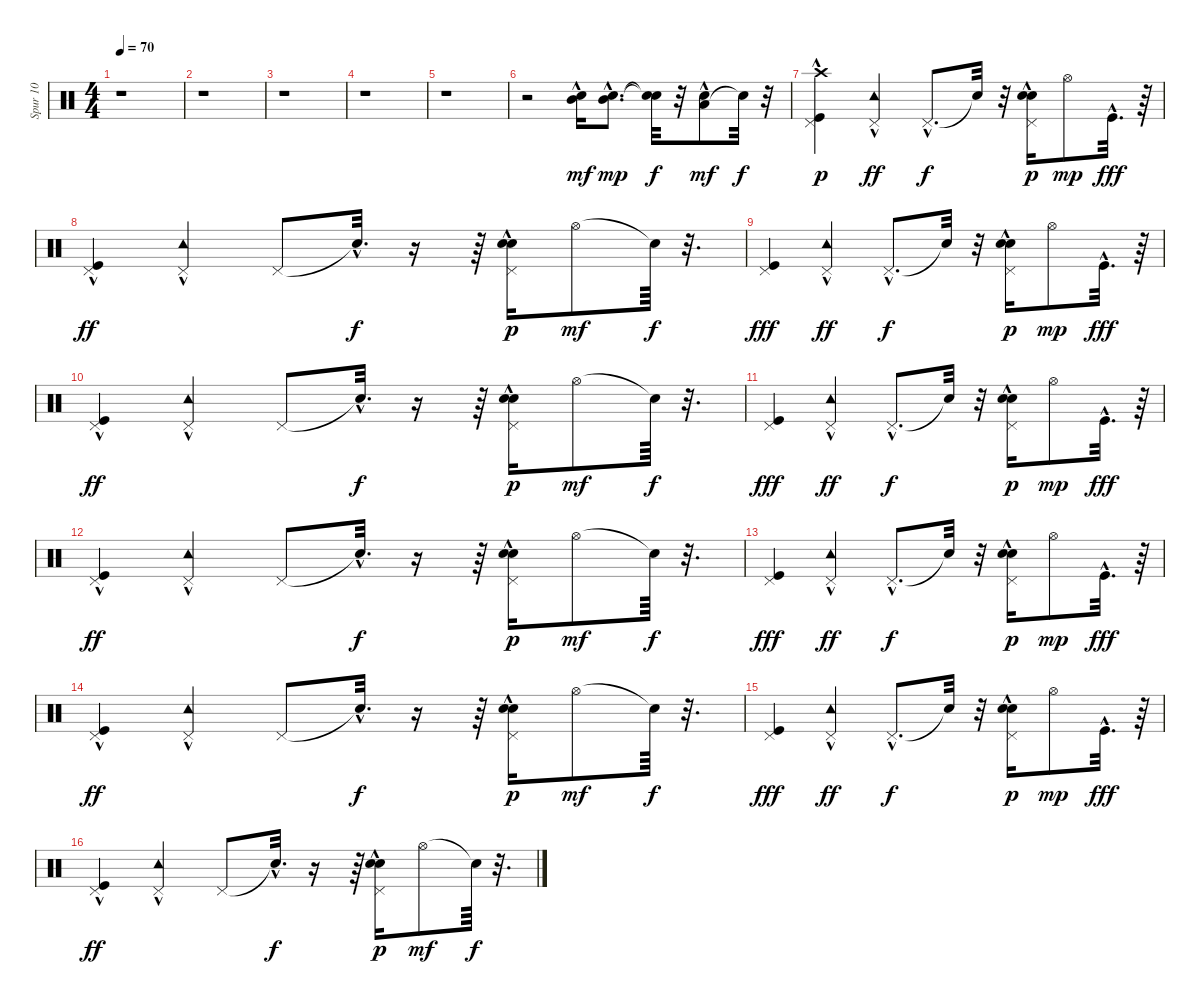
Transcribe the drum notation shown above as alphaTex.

\track ("Spur 10" "Spur 10") {instrument percussion}
\staff {score}
\articulation defaults
\ts (4 4)
\tempo 70
\clef neutral
\ks c
r.1{dy mf} |
r.1 |
r.1 |
r.1 |
r.1 |
r.2 ("Electric Snare (hit)" "Mid Tom (hit)"{hac}).16 ("Electric Snare (hit)"{hac} "Mid Tom (hit)"{hac}).8{d dy mp} ("Snare (hit)"{t} "Snare (hit)"{t}).32{dy f} r.32 ("Low Tom (hit)"{hac} "Electric Snare (hit)").8{dy mf} "Snare (hit)"{t}.32{dy f} r.32 |
("Kick (hit)" "Pedal Hi-Hat (hit)" "Crash high (hit)"{hac}).4{dy p} ("Pedal Hi-Hat (hit)"{hac} "Tambourine (hit)").4{dy ff} "Pedal Hi-Hat (hit)"{hac}.8{d dy f} "Snare (hit)"{t}.32 r.32 ("Pedal Hi-Hat (hit)"{hac} "Snare (hit) 2" "Electric Snare (hit)").16{dy p} "Hi-Hat (open)".8{dy mp} "Kick (hit)"{hac}.32{d dy fff} r.64 |
("Kick (hit)" "Pedal Hi-Hat (hit)"{hac}).4{dy ff} ("Tambourine (hit)" "Pedal Hi-Hat (hit)"{hac}).4 "Pedal Hi-Hat (hit)".8 "Snare (hit)"{hac t}.32{d dy f} r.16 r.64 ("Pedal Hi-Hat (hit)"{hac} "Electric Snare (hit)" "Snare (hit) 2"{hac}).16{dy p} "Hi-Hat (open)".8{dy mf} "Snare (hit)"{t}.64{dy f} r.32{d} |
("Kick (hit)" "Pedal Hi-Hat (hit)").4{dy fff} ("Pedal Hi-Hat (hit)"{hac} "Tambourine (hit)").4{dy ff} "Pedal Hi-Hat (hit)"{hac}.8{d dy f} "Snare (hit)"{t}.32 r.32 ("Pedal Hi-Hat (hit)"{hac} "Snare (hit) 2" "Electric Snare (hit)").16{dy p} "Hi-Hat (open)".8{dy mp} "Kick (hit)"{hac}.32{d dy fff} r.64 |
("Kick (hit)" "Pedal Hi-Hat (hit)"{hac}).4{dy ff} ("Tambourine (hit)" "Pedal Hi-Hat (hit)"{hac}).4 "Pedal Hi-Hat (hit)".8 "Snare (hit)"{hac t}.32{d dy f} r.16 r.64 ("Pedal Hi-Hat (hit)"{hac} "Electric Snare (hit)" "Snare (hit) 2"{hac}).16{dy p} "Hi-Hat (open)".8{dy mf} "Snare (hit)"{t}.64{dy f} r.32{d} |
("Kick (hit)" "Pedal Hi-Hat (hit)").4{dy fff} ("Pedal Hi-Hat (hit)"{hac} "Tambourine (hit)").4{dy ff} "Pedal Hi-Hat (hit)"{hac}.8{d dy f} "Snare (hit)"{t}.32 r.32 ("Pedal Hi-Hat (hit)"{hac} "Snare (hit) 2" "Electric Snare (hit)").16{dy p} "Hi-Hat (open)".8{dy mp} "Kick (hit)"{hac}.32{d dy fff} r.64 |
("Kick (hit)" "Pedal Hi-Hat (hit)"{hac}).4{dy ff} ("Tambourine (hit)" "Pedal Hi-Hat (hit)"{hac}).4 "Pedal Hi-Hat (hit)".8 "Snare (hit)"{hac t}.32{d dy f} r.16 r.64 ("Pedal Hi-Hat (hit)"{hac} "Electric Snare (hit)" "Snare (hit) 2"{hac}).16{dy p} "Hi-Hat (open)".8{dy mf} "Snare (hit)"{t}.64{dy f} r.32{d} |
("Kick (hit)" "Pedal Hi-Hat (hit)").4{dy fff} ("Pedal Hi-Hat (hit)"{hac} "Tambourine (hit)").4{dy ff} "Pedal Hi-Hat (hit)"{hac}.8{d dy f} "Snare (hit)"{t}.32 r.32 ("Pedal Hi-Hat (hit)"{hac} "Snare (hit) 2" "Electric Snare (hit)").16{dy p} "Hi-Hat (open)".8{dy mp} "Kick (hit)"{hac}.32{d dy fff} r.64 |
("Kick (hit)" "Pedal Hi-Hat (hit)"{hac}).4{dy ff} ("Tambourine (hit)" "Pedal Hi-Hat (hit)"{hac}).4 "Pedal Hi-Hat (hit)".8 "Snare (hit)"{hac t}.32{d dy f} r.16 r.64 ("Pedal Hi-Hat (hit)"{hac} "Electric Snare (hit)" "Snare (hit) 2"{hac}).16{dy p} "Hi-Hat (open)".8{dy mf} "Snare (hit)"{t}.64{dy f} r.32{d} |
("Kick (hit)" "Pedal Hi-Hat (hit)").4{dy fff} ("Pedal Hi-Hat (hit)"{hac} "Tambourine (hit)").4{dy ff} "Pedal Hi-Hat (hit)"{hac}.8{d dy f} "Snare (hit)"{t}.32 r.32 ("Pedal Hi-Hat (hit)"{hac} "Snare (hit) 2" "Electric Snare (hit)").16{dy p} "Hi-Hat (open)".8{dy mp} "Kick (hit)"{hac}.32{d dy fff} r.64 |
("Kick (hit)" "Pedal Hi-Hat (hit)"{hac}).4{dy ff} ("Tambourine (hit)" "Pedal Hi-Hat (hit)"{hac}).4 "Pedal Hi-Hat (hit)".8 "Snare (hit)"{hac t}.32{d dy f} r.16 r.64 ("Pedal Hi-Hat (hit)"{hac} "Electric Snare (hit)" "Snare (hit) 2"{hac}).16{dy p} "Hi-Hat (open)".8{dy mf} "Snare (hit)"{t}.64{dy f} r.32{d}
